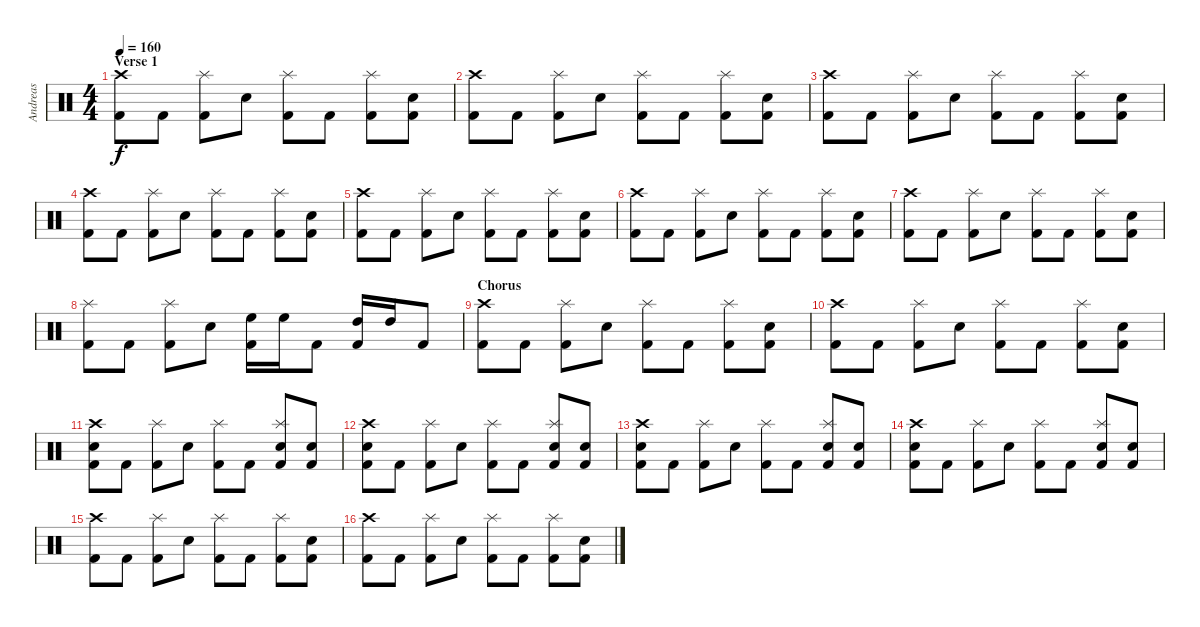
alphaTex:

\track ("Andreas" "Andreas") {instrument percussion}
\staff {score}
\articulation defaults
\ts (4 4)
\section ("" "Verse 1")
\tempo 160
\clef neutral
\ks c
("Crash high (hit)" "Kick (hit) 2").8{dy f} "Kick (hit) 2".8 ("Splash (hit)" "Kick (hit) 2").8 "Snare (hit) 2".8 ("Splash (hit)" "Kick (hit) 2").8 "Kick (hit) 2".8 ("Splash (hit)" "Kick (hit) 2").8 ("Snare (hit) 2" "Kick (hit) 2").8 |
("Crash high (hit)" "Kick (hit) 2").8 "Kick (hit) 2".8 ("Splash (hit)" "Kick (hit) 2").8 "Snare (hit) 2".8 ("Splash (hit)" "Kick (hit) 2").8 "Kick (hit) 2".8 ("Splash (hit)" "Kick (hit) 2").8 ("Snare (hit) 2" "Kick (hit) 2").8 |
("Crash high (hit)" "Kick (hit) 2").8 "Kick (hit) 2".8 ("Splash (hit)" "Kick (hit) 2").8 "Snare (hit) 2".8 ("Splash (hit)" "Kick (hit) 2").8 "Kick (hit) 2".8 ("Splash (hit)" "Kick (hit) 2").8 ("Snare (hit) 2" "Kick (hit) 2").8 |
("Crash high (hit)" "Kick (hit) 2").8 "Kick (hit) 2".8 ("Splash (hit)" "Kick (hit) 2").8 "Snare (hit) 2".8 ("Splash (hit)" "Kick (hit) 2").8 "Kick (hit) 2".8 ("Splash (hit)" "Kick (hit) 2").8 ("Snare (hit) 2" "Kick (hit) 2").8 |
("Crash high (hit)" "Kick (hit) 2").8 "Kick (hit) 2".8 ("Splash (hit)" "Kick (hit) 2").8 "Snare (hit) 2".8 ("Splash (hit)" "Kick (hit) 2").8 "Kick (hit) 2".8 ("Splash (hit)" "Kick (hit) 2").8 ("Snare (hit) 2" "Kick (hit) 2").8 |
("Crash high (hit)" "Kick (hit) 2").8 "Kick (hit) 2".8 ("Splash (hit)" "Kick (hit) 2").8 "Snare (hit) 2".8 ("Splash (hit)" "Kick (hit) 2").8 "Kick (hit) 2".8 ("Splash (hit)" "Kick (hit) 2").8 ("Snare (hit) 2" "Kick (hit) 2").8 |
("Crash high (hit)" "Kick (hit) 2").8 "Kick (hit) 2".8 ("Splash (hit)" "Kick (hit) 2").8 "Snare (hit) 2".8 ("Splash (hit)" "Kick (hit) 2").8 "Kick (hit) 2".8 ("Splash (hit)" "Kick (hit) 2").8 ("Snare (hit) 2" "Kick (hit) 2").8 |
("Splash (hit)" "Kick (hit) 2").8 "Kick (hit) 2".8 ("Splash (hit)" "Kick (hit) 2").8 "Snare (hit) 2".8 ("High Floor Tom (hit)" "Kick (hit) 2").16 "High Floor Tom (hit)".16 "Kick (hit) 2".8 ("High Tom (hit)" "Kick (hit) 2").16 "High Tom (hit)".16 "Kick (hit) 2".8 |
\section ("" "Chorus")
("Crash high (hit)" "Kick (hit) 2").8 "Kick (hit) 2".8 ("Splash (hit)" "Kick (hit) 2").8 "Snare (hit) 2".8 ("Splash (hit)" "Kick (hit) 2").8 "Kick (hit) 2".8 ("Splash (hit)" "Kick (hit) 2").8 ("Snare (hit) 2" "Kick (hit) 2").8 |
("Crash high (hit)" "Kick (hit) 2").8 "Kick (hit) 2".8 ("Splash (hit)" "Kick (hit) 2").8 "Snare (hit) 2".8 ("Splash (hit)" "Kick (hit) 2").8 "Kick (hit) 2".8 ("Splash (hit)" "Kick (hit) 2").8 ("Snare (hit) 2" "Kick (hit) 2").8 |
("Crash high (hit)" "Snare (hit) 2" "Kick (hit) 2").8 "Kick (hit) 2".8 ("Splash (hit)" "Kick (hit) 2").8 "Snare (hit) 2".8 ("Splash (hit)" "Kick (hit) 2").8 "Kick (hit) 2".8 ("Splash (hit)" "Snare (hit) 2" "Kick (hit) 2").8 ("Snare (hit) 2" "Kick (hit) 2").8 |
("Crash high (hit)" "Snare (hit) 2" "Kick (hit) 2").8 "Kick (hit) 2".8 ("Splash (hit)" "Kick (hit) 2").8 "Snare (hit) 2".8 ("Splash (hit)" "Kick (hit) 2").8 "Kick (hit) 2".8 ("Splash (hit)" "Snare (hit) 2" "Kick (hit) 2").8 ("Snare (hit) 2" "Kick (hit) 2").8 |
("Crash high (hit)" "Snare (hit) 2" "Kick (hit) 2").8 "Kick (hit) 2".8 ("Splash (hit)" "Kick (hit) 2").8 "Snare (hit) 2".8 ("Splash (hit)" "Kick (hit) 2").8 "Kick (hit) 2".8 ("Splash (hit)" "Snare (hit) 2" "Kick (hit) 2").8 ("Snare (hit) 2" "Kick (hit) 2").8 |
("Crash high (hit)" "Snare (hit) 2" "Kick (hit) 2").8 "Kick (hit) 2".8 ("Splash (hit)" "Kick (hit) 2").8 "Snare (hit) 2".8 ("Splash (hit)" "Kick (hit) 2").8 "Kick (hit) 2".8 ("Splash (hit)" "Snare (hit) 2" "Kick (hit) 2").8 ("Snare (hit) 2" "Kick (hit) 2").8 |
("Crash high (hit)" "Kick (hit) 2").8 "Kick (hit) 2".8 ("Splash (hit)" "Kick (hit) 2").8 "Snare (hit) 2".8 ("Splash (hit)" "Kick (hit) 2").8 "Kick (hit) 2".8 ("Splash (hit)" "Kick (hit) 2").8 ("Snare (hit) 2" "Kick (hit) 2").8 |
("Crash high (hit)" "Kick (hit) 2").8 "Kick (hit) 2".8 ("Splash (hit)" "Kick (hit) 2").8 "Snare (hit) 2".8 ("Splash (hit)" "Kick (hit) 2").8 "Kick (hit) 2".8 ("Splash (hit)" "Kick (hit) 2").8 ("Snare (hit) 2" "Kick (hit) 2").8
